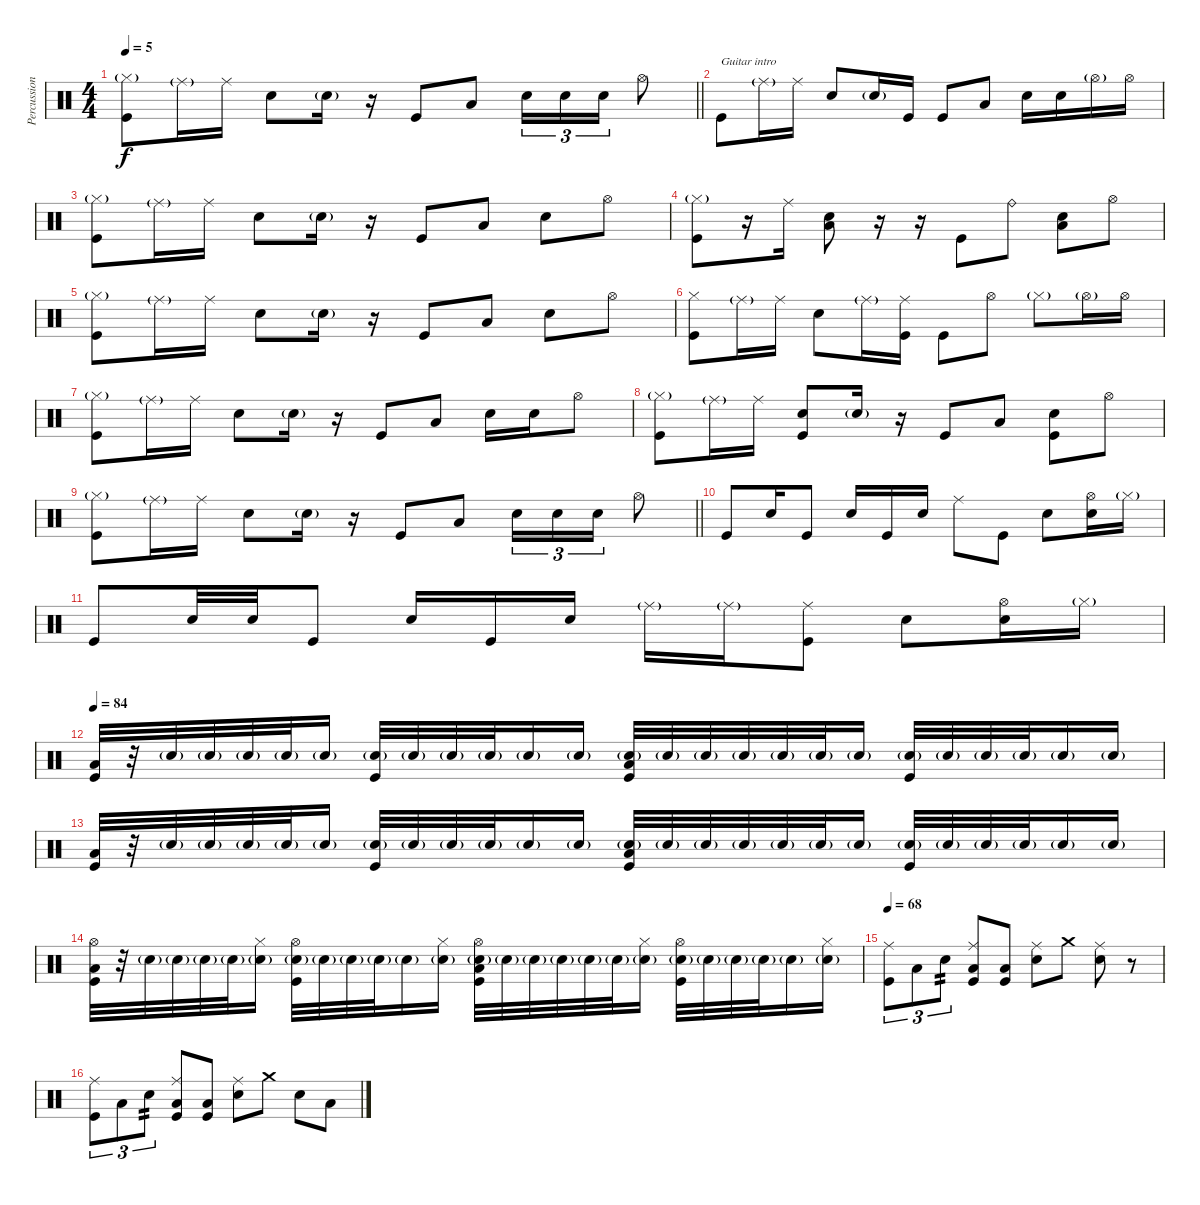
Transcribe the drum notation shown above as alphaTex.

\track ("Percussion" "Percussion") {instrument percussion}
\staff {score}
\articulation defaults
\ts (4 4)
\tempo 5
\clef neutral
\barLineRight lightlight
\ks c
("Hi-Hat (closed)"{g} "Kick (hit)").8{dy f} "Ride (middle)"{g}.16 "Ride (middle)".16 "Snare (hit) 2".8 "Snare (hit) 2"{g}.16 r.16 "Kick (hit)".8 "Low Floor Tom (hit)".8 "Snare (hit) 2".16{tu (3 2)} "Snare (hit) 2".16{tu (3 2)} "Snare (hit) 2".16{tu (3 2)} "Hi-Hat (open)".8 |
"Kick (hit)".8{txt "Guitar intro"} "Ride (middle)"{g}.16 "Ride (middle)".16 "Snare (hit) 2".8 "Snare (hit) 2"{g}.16 "Kick (hit)".16 "Kick (hit)".8 "Low Floor Tom (hit)".8 "Snare (hit) 2".16 "Snare (hit) 2".16 "Hi-Hat (open)"{g}.16 "Hi-Hat (open)".16 |
("Hi-Hat (closed)"{g} "Kick (hit)").8 "Ride (middle)"{g}.16 "Ride (middle)".16 "Snare (hit) 2".8 "Snare (hit) 2"{g}.16 r.16 "Kick (hit)".8 "Low Floor Tom (hit)".8 "Snare (hit) 2".8 "Hi-Hat (open)".8 |
("Hi-Hat (closed)"{g} "Kick (hit)").8 r.16 "Ride (middle)".16 ("Snare (hit) 2" "Low Floor Tom (hit)").8 r.16 r.16 "Kick (hit)".8 "Ride (bell)".8 ("Snare (hit) 2" "Low Floor Tom (hit)").8 "Hi-Hat (open)".8 |
("Hi-Hat (closed)"{g} "Kick (hit)").8 "Ride (middle)"{g}.16 "Ride (middle)".16 "Snare (hit) 2".8 "Snare (hit) 2"{g}.16 r.16 "Kick (hit)".8 "Low Floor Tom (hit)".8 "Snare (hit) 2".8 "Hi-Hat (open)".8 |
("Hi-Hat (closed)" "Kick (hit)").8 "Ride (middle)"{g}.16 "Ride (middle)".16 "Snare (hit) 2".8 "Ride (middle)"{g}.16 ("Ride (middle)" "Kick (hit)").16 "Kick (hit)".8 "Hi-Hat (open)".8 "Hi-Hat (closed)"{g}.8 "Hi-Hat (open)"{g}.16 "Hi-Hat (open)".16 |
("Hi-Hat (closed)"{g} "Kick (hit)").8 "Ride (middle)"{g}.16 "Ride (middle)".16 "Snare (hit) 2".8 "Snare (hit) 2"{g}.16 r.16 "Kick (hit)".8 "Low Floor Tom (hit)".8 "Snare (hit) 2".16 "Snare (hit) 2".16 "Hi-Hat (open)".8 |
("Hi-Hat (closed)"{g} "Kick (hit)").8 "Ride (middle)"{g}.16 "Ride (middle)".16 ("Snare (hit) 2" "Kick (hit)").8 "Snare (hit) 2"{g}.16 r.16 "Kick (hit)".8 "Low Floor Tom (hit)".8 ("Snare (hit) 2" "Kick (hit)").8 "Hi-Hat (open)".8 |
\barLineRight lightlight
("Hi-Hat (closed)"{g} "Kick (hit)").8 "Ride (middle)"{g}.16 "Ride (middle)".16 "Snare (hit) 2".8 "Snare (hit) 2"{g}.16 r.16 "Kick (hit)".8 "Low Floor Tom (hit)".8 "Snare (hit) 2".16{tu (3 2)} "Snare (hit) 2".16{tu (3 2)} "Snare (hit) 2".16{tu (3 2)} "Hi-Hat (open)".8 |
"Kick (hit)".8 "Snare (hit) 2".16 "Kick (hit)".8 "Snare (hit) 2".16 "Kick (hit)".16 "Snare (hit) 2".16 "Ride (middle)".8 "Kick (hit)".8 "Snare (hit) 2".8 ("Hi-Hat (open)" "Snare (hit) 2").16 "Hi-Hat (closed)"{g}.16 |
"Kick (hit)".8 "Snare (hit) 2".32 "Snare (hit) 2".32 "Kick (hit)".8 "Snare (hit) 2".16 "Kick (hit)".16 "Snare (hit) 2".16 "Ride (middle)"{g}.16 "Ride (middle)"{g}.16 ("Ride (middle)" "Kick (hit)").8 "Snare (hit) 2".8 ("Hi-Hat (open)" "Snare (hit) 2").16 "Hi-Hat (closed)"{g}.16 |
\tempo 84
("Low Floor Tom (hit)" "Kick (hit)").32 r.32 "Snare (hit) 2"{g}.32 "Snare (hit) 2"{g}.32 "Snare (hit) 2"{g}.32 "Snare (hit) 2"{g}.32 "Snare (hit) 2"{g}.16 ("Snare (hit) 2"{g} "Kick (hit)").32 "Snare (hit) 2"{g}.32 "Snare (hit) 2"{g}.32 "Snare (hit) 2"{g}.32 "Snare (hit) 2"{g}.16 "Snare (hit) 2"{g}.16 ("Low Floor Tom (hit)" "Snare (hit) 2"{g} "Kick (hit)").32 "Snare (hit) 2"{g}.32 "Snare (hit) 2"{g}.32 "Snare (hit) 2"{g}.32 "Snare (hit) 2"{g}.32 "Snare (hit) 2"{g}.32 "Snare (hit) 2"{g}.16 ("Snare (hit) 2"{g} "Kick (hit)").32 "Snare (hit) 2"{g}.32 "Snare (hit) 2"{g}.32 "Snare (hit) 2"{g}.32 "Snare (hit) 2"{g}.16 "Snare (hit) 2"{g}.16 |
("Low Floor Tom (hit)" "Kick (hit)").32 r.32 "Snare (hit) 2"{g}.32 "Snare (hit) 2"{g}.32 "Snare (hit) 2"{g}.32 "Snare (hit) 2"{g}.32 "Snare (hit) 2"{g}.16 ("Snare (hit) 2"{g} "Kick (hit)").32 "Snare (hit) 2"{g}.32 "Snare (hit) 2"{g}.32 "Snare (hit) 2"{g}.32 "Snare (hit) 2"{g}.16 "Snare (hit) 2"{g}.16 ("Low Floor Tom (hit)" "Snare (hit) 2"{g} "Kick (hit)").32 "Snare (hit) 2"{g}.32 "Snare (hit) 2"{g}.32 "Snare (hit) 2"{g}.32 "Snare (hit) 2"{g}.32 "Snare (hit) 2"{g}.32 "Snare (hit) 2"{g}.16 ("Snare (hit) 2"{g} "Kick (hit)").32 "Snare (hit) 2"{g}.32 "Snare (hit) 2"{g}.32 "Snare (hit) 2"{g}.32 "Snare (hit) 2"{g}.16 "Snare (hit) 2"{g}.16 |
("Hi-Hat (open)" "Low Floor Tom (hit)" "Kick (hit)").32 r.32 "Snare (hit) 2"{g}.32 "Snare (hit) 2"{g}.32 "Snare (hit) 2"{g}.32 "Snare (hit) 2"{g}.32 ("Hi-Hat (closed)" "Snare (hit) 2"{g}).16 ("Hi-Hat (open)" "Snare (hit) 2"{g} "Kick (hit)").32 "Snare (hit) 2"{g}.32 "Snare (hit) 2"{g}.32 "Snare (hit) 2"{g}.32 "Snare (hit) 2"{g}.16 ("Hi-Hat (closed)" "Snare (hit) 2"{g}).16 ("Hi-Hat (open)" "Low Floor Tom (hit)" "Snare (hit) 2"{g} "Kick (hit)").32 "Snare (hit) 2"{g}.32 "Snare (hit) 2"{g}.32 "Snare (hit) 2"{g}.32 "Snare (hit) 2"{g}.32 "Snare (hit) 2"{g}.32 ("Hi-Hat (closed)" "Snare (hit) 2"{g}).16 ("Hi-Hat (open)" "Snare (hit) 2"{g} "Kick (hit)").32 "Snare (hit) 2"{g}.32 "Snare (hit) 2"{g}.32 "Snare (hit) 2"{g}.32 "Snare (hit) 2"{g}.16 ("Hi-Hat (closed)" "Snare (hit) 2"{g}).16 |
\tempo 72
\tempo 68
("Ride (middle)" "Kick (hit)").8{tu (3 2)} "Low Floor Tom (hit)".8{tu (3 2)} "Snare (hit) 2".8{tu (3 2) tp 2} ("Ride (middle)" "Low Floor Tom (hit)" "Kick (hit)").8 ("Low Floor Tom (hit)" "Kick (hit)").8 ("Ride (middle)" "Snare (hit) 2").8 "Crash medium (hit)".8 ("Ride (middle)" "Snare (hit) 2").8 r.8 |
("Ride (middle)" "Kick (hit)").8{tu (3 2)} "Low Floor Tom (hit)".8{tu (3 2)} "Snare (hit) 2".8{tu (3 2) tp 2} ("Ride (middle)" "Low Floor Tom (hit)" "Kick (hit)").8 ("Low Floor Tom (hit)" "Kick (hit)").8 ("Ride (middle)" "Snare (hit) 2").8 "Crash medium (hit)".8 "Snare (hit) 2".8 "Low Floor Tom (hit)".8
